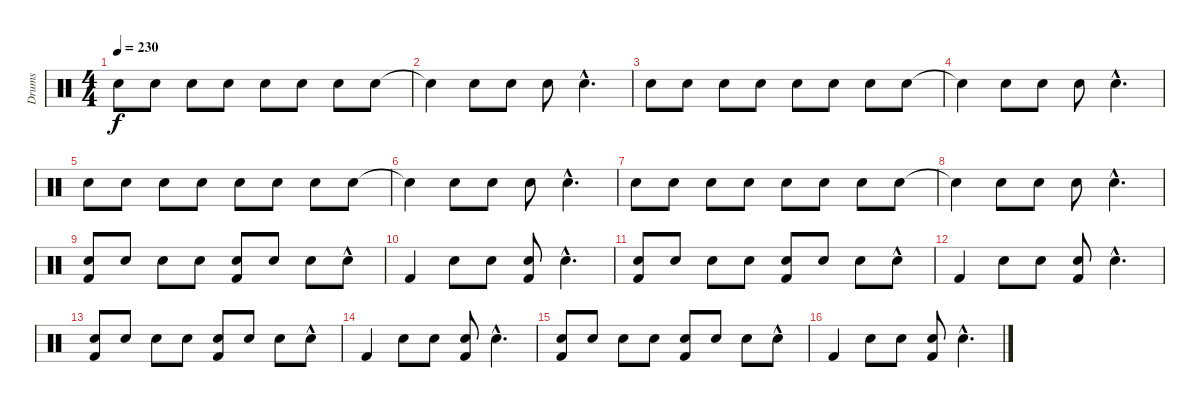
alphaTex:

\track ("Drums" "Drums") {instrument percussion}
\staff {score}
\articulation defaults
\ts (4 4)
\tempo 230
\clef neutral
\ks c "Electric Snare (hit)".8{dy f} "Electric Snare (hit)".8 "Electric Snare (hit)".8 "Electric Snare (hit)".8 "Electric Snare (hit)".8 "Electric Snare (hit)".8 "Electric Snare (hit)".8 "Electric Snare (hit)".8
|
"Snare (hit)"{t}.4 "Electric Snare (hit)".8 "Electric Snare (hit)".8 "Electric Snare (hit)".8 "Electric Snare (hit)"{hac}.4{d} |
"Electric Snare (hit)".8 "Electric Snare (hit)".8 "Electric Snare (hit)".8 "Electric Snare (hit)".8 "Electric Snare (hit)".8 "Electric Snare (hit)".8 "Electric Snare (hit)".8 "Electric Snare (hit)".8 |
"Snare (hit)"{t}.4 "Electric Snare (hit)".8 "Electric Snare (hit)".8 "Electric Snare (hit)".8 "Electric Snare (hit)"{hac}.4{d} |
"Electric Snare (hit)".8 "Electric Snare (hit)".8 "Electric Snare (hit)".8 "Electric Snare (hit)".8 "Electric Snare (hit)".8 "Electric Snare (hit)".8 "Electric Snare (hit)".8 "Electric Snare (hit)".8 |
"Snare (hit)"{t}.4 "Electric Snare (hit)".8 "Electric Snare (hit)".8 "Electric Snare (hit)".8 "Electric Snare (hit)"{hac}.4{d} |
"Electric Snare (hit)".8 "Electric Snare (hit)".8 "Electric Snare (hit)".8 "Electric Snare (hit)".8 "Electric Snare (hit)".8 "Electric Snare (hit)".8 "Electric Snare (hit)".8 "Electric Snare (hit)".8 |
"Snare (hit)"{t}.4 "Electric Snare (hit)".8 "Electric Snare (hit)".8 "Electric Snare (hit)".8 "Electric Snare (hit)"{hac}.4{d} |
("Kick (hit) 2" "Electric Snare (hit)").8{volume 16} "Electric Snare (hit)".8 "Electric Snare (hit)".8 "Electric Snare (hit)".8 ("Kick (hit) 2" "Electric Snare (hit)").8 "Electric Snare (hit)".8 "Electric Snare (hit)".8 "Electric Snare (hit)"{hac}.8 |
"Kick (hit) 2".4 "Electric Snare (hit)".8 "Electric Snare (hit)".8 ("Kick (hit) 2" "Electric Snare (hit)").8 "Electric Snare (hit)"{hac}.4{d} |
("Kick (hit) 2" "Electric Snare (hit)").8 "Electric Snare (hit)".8 "Electric Snare (hit)".8 "Electric Snare (hit)".8 ("Kick (hit) 2" "Electric Snare (hit)").8 "Electric Snare (hit)".8 "Electric Snare (hit)".8 "Electric Snare (hit)"{hac}.8 |
"Kick (hit) 2".4 "Electric Snare (hit)".8 "Electric Snare (hit)".8 ("Kick (hit) 2" "Electric Snare (hit)").8 "Electric Snare (hit)"{hac}.4{d} |
("Kick (hit) 2" "Electric Snare (hit)").8 "Electric Snare (hit)".8 "Electric Snare (hit)".8 "Electric Snare (hit)".8 ("Kick (hit) 2" "Electric Snare (hit)").8 "Electric Snare (hit)".8 "Electric Snare (hit)".8 "Electric Snare (hit)"{hac}.8 |
"Kick (hit) 2".4 "Electric Snare (hit)".8 "Electric Snare (hit)".8 ("Kick (hit) 2" "Electric Snare (hit)").8 "Electric Snare (hit)"{hac}.4{d} |
("Kick (hit) 2" "Electric Snare (hit)").8 "Electric Snare (hit)".8 "Electric Snare (hit)".8 "Electric Snare (hit)".8 ("Kick (hit) 2" "Electric Snare (hit)").8 "Electric Snare (hit)".8 "Electric Snare (hit)".8 "Electric Snare (hit)"{hac}.8 |
"Kick (hit) 2".4 "Electric Snare (hit)".8 "Electric Snare (hit)".8 ("Kick (hit) 2" "Electric Snare (hit)").8 "Electric Snare (hit)"{hac}.4{d}
